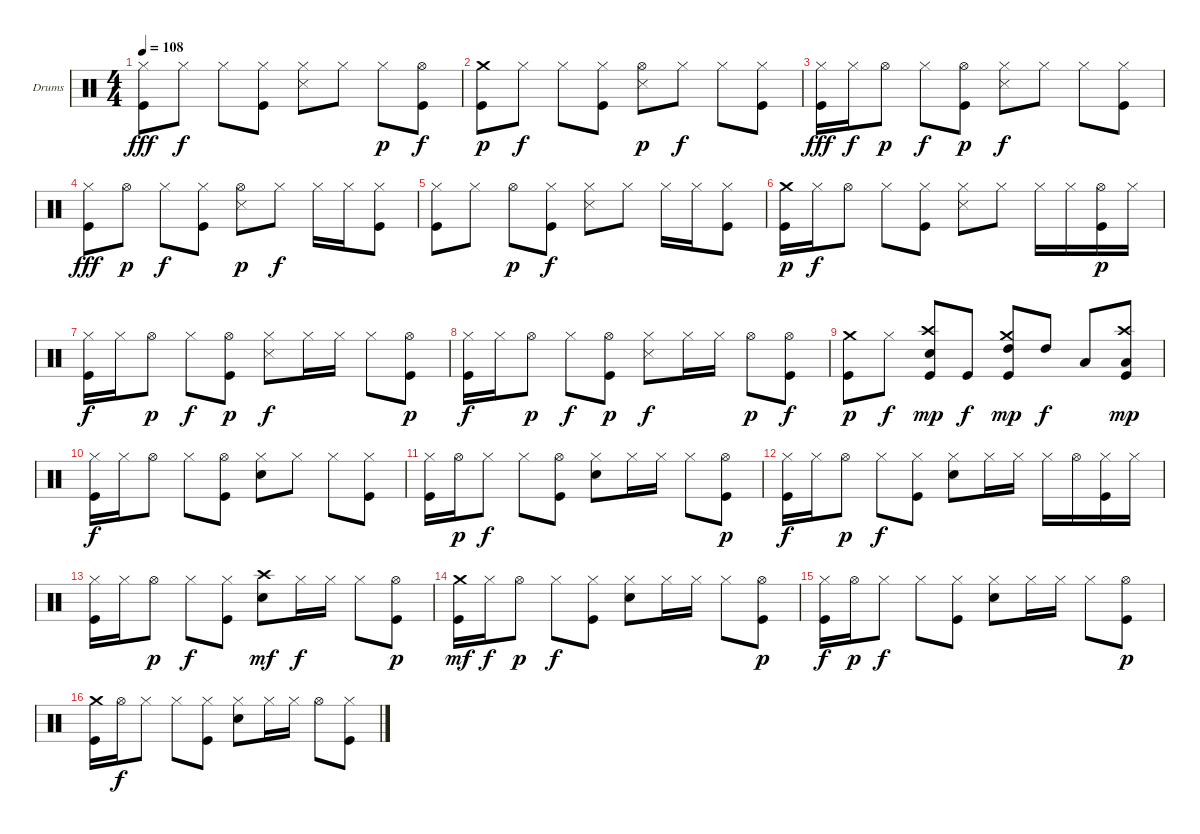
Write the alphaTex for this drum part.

\bracketExtendMode groupsimilarinstruments
\firstSystemTrackNameOrientation horizontal
\otherSystemsTrackNameOrientation horizontal
\track ("Drumkit" "Drums") {instrument percussion}
\staff {score}
\articulation defaults
\ts (4 4)
\tempo 108
\clef neutral
\ks c
("Hi-Hat (closed)" "Kick (hit)").8{dy fff} "Hi-Hat (closed)".8{dy f} "Hi-Hat (closed)".8 ("Hi-Hat (closed)" "Kick (hit)").8 ("Hi-Hat (closed)" "Snare (side stick) 3").8 "Hi-Hat (closed)".8 "Hi-Hat (closed)".8{dy p} ("Hi-Hat (open)" "Kick (hit)").8{dy f} |
("Crash medium (hit)" "Kick (hit)").8{dy p} "Hi-Hat (closed)".8{dy f} "Hi-Hat (closed)".8 ("Hi-Hat (closed)" "Kick (hit)").8 ("Hi-Hat (open)" "Snare (side stick) 3").8{dy p} "Hi-Hat (closed)".8{dy f} "Hi-Hat (closed)".8 ("Hi-Hat (closed)" "Kick (hit)").8 |
("Hi-Hat (closed)" "Kick (hit)").16{dy fff} "Hi-Hat (closed)".16{dy f} "Hi-Hat (open)".8{dy p} "Hi-Hat (closed)".8{dy f} ("Hi-Hat (open)" "Kick (hit)").8{dy p} ("Hi-Hat (closed)" "Snare (side stick) 3").8{dy f} "Hi-Hat (closed)".8 "Hi-Hat (closed)".8 ("Hi-Hat (closed)" "Kick (hit)").8 |
("Hi-Hat (closed)" "Kick (hit)").8{dy fff} "Hi-Hat (open)".8{dy p} "Hi-Hat (closed)".8{dy f} ("Hi-Hat (closed)" "Kick (hit)").8 ("Hi-Hat (open)" "Snare (side stick) 3").8{dy p} "Hi-Hat (closed)".8{dy f} "Hi-Hat (closed)".16 "Hi-Hat (closed)".16 ("Hi-Hat (closed)" "Kick (hit)").8 |
("Hi-Hat (closed)" "Kick (hit)").8 "Hi-Hat (closed)".8 "Hi-Hat (open)".8{dy p} ("Hi-Hat (closed)" "Kick (hit)").8{dy f} ("Hi-Hat (closed)" "Snare (side stick) 3").8 "Hi-Hat (closed)".8 "Hi-Hat (closed)".16 "Hi-Hat (closed)".16 ("Hi-Hat (closed)" "Kick (hit)").8 |
("Crash medium (hit)" "Kick (hit)").16{dy p} "Hi-Hat (closed)".16{dy f} "Hi-Hat (open)".8 "Hi-Hat (closed)".8 ("Hi-Hat (closed)" "Kick (hit)").8 ("Hi-Hat (closed)" "Snare (side stick) 3").8 "Hi-Hat (closed)".8 "Hi-Hat (closed)".16 "Hi-Hat (closed)".16 ("Hi-Hat (open)" "Kick (hit)").16{dy p} "Hi-Hat (closed)".16 |
("Hi-Hat (closed)" "Kick (hit)").16{dy f} "Hi-Hat (closed)".16 "Hi-Hat (open)".8{dy p} "Hi-Hat (closed)".8{dy f} ("Hi-Hat (open)" "Kick (hit)").8{dy p} ("Hi-Hat (closed)" "Snare (side stick) 3").8{dy f} "Hi-Hat (closed)".16 "Hi-Hat (closed)".16 "Hi-Hat (closed)".8 ("Hi-Hat (open)" "Kick (hit)").8{dy p} |
("Hi-Hat (closed)" "Kick (hit)").16{dy f} "Hi-Hat (closed)".16 "Hi-Hat (open)".8{dy p} "Hi-Hat (closed)".8{dy f} ("Hi-Hat (open)" "Kick (hit)").8{dy p} ("Hi-Hat (closed)" "Snare (side stick) 3").8{dy f} "Hi-Hat (closed)".16 "Hi-Hat (closed)".16 "Hi-Hat (open)".8{dy p} ("Hi-Hat (open)" "Kick (hit)").8{dy f} |
("Crash medium (hit)" "Kick (hit)").8{dy p} "Hi-Hat (closed)".8{dy f} ("Crash high (hit)" "Snare (hit) 2" "Kick (hit)").8{dy mp} "Kick (hit)".8{dy f} ("Crash medium (hit)" "High Tom (hit)" "Kick (hit)").8{dy mp} "High Tom (hit)".8{dy f} "Low Tom (hit)".8 ("Crash high (hit)" "Low Tom (hit)" "Kick (hit)").8{dy mp} |
("Hi-Hat (closed)" "Kick (hit)").16{dy f} "Hi-Hat (closed)".16 "Hi-Hat (open)".8 "Hi-Hat (closed)".8 ("Hi-Hat (open)" "Kick (hit)").8 ("Hi-Hat (closed)" "Snare (hit) 2").8 "Hi-Hat (closed)".8 "Hi-Hat (closed)".8 ("Hi-Hat (closed)" "Kick (hit)").8 |
("Hi-Hat (closed)" "Kick (hit)").16 "Hi-Hat (open)".16{dy p} "Hi-Hat (closed)".8{dy f} "Hi-Hat (closed)".8 ("Hi-Hat (open)" "Kick (hit)").8 ("Hi-Hat (closed)" "Snare (hit) 2").8 "Hi-Hat (closed)".16 "Hi-Hat (closed)".16 "Hi-Hat (closed)".8 ("Hi-Hat (open)" "Kick (hit)").8{dy p} |
("Hi-Hat (closed)" "Kick (hit)").16{dy f} "Hi-Hat (closed)".16 "Hi-Hat (open)".8{dy p} "Hi-Hat (closed)".8{dy f} ("Hi-Hat (closed)" "Kick (hit)").8 ("Hi-Hat (closed)" "Snare (hit) 2").8 "Hi-Hat (closed)".16 "Hi-Hat (closed)".16 "Hi-Hat (closed)".16 "Hi-Hat (open)".16 ("Hi-Hat (closed)" "Kick (hit)").16 "Hi-Hat (closed)".16 |
("Hi-Hat (closed)" "Kick (hit)").16 "Hi-Hat (closed)".16 "Hi-Hat (open)".8{dy p} "Hi-Hat (closed)".8{dy f} ("Hi-Hat (closed)" "Kick (hit)").8 ("Crash high (hit)" "Snare (hit) 2").8{dy mf} "Hi-Hat (closed)".16{dy f} "Hi-Hat (closed)".16 "Hi-Hat (closed)".8 ("Hi-Hat (open)" "Kick (hit)").8{dy p} |
("Crash medium (hit)" "Kick (hit)").16{dy mf} "Hi-Hat (closed)".16{dy f} "Hi-Hat (open)".8{dy p} "Hi-Hat (closed)".8{dy f} ("Hi-Hat (closed)" "Kick (hit)").8 ("Hi-Hat (closed)" "Snare (hit) 2").8 "Hi-Hat (closed)".16 "Hi-Hat (closed)".16 "Hi-Hat (closed)".8 ("Hi-Hat (open)" "Kick (hit)").8{dy p} |
("Hi-Hat (closed)" "Kick (hit)").16{dy f} "Hi-Hat (open)".16{dy p} "Hi-Hat (closed)".8{dy f} "Hi-Hat (closed)".8 ("Hi-Hat (closed)" "Kick (hit)").8 ("Hi-Hat (closed)" "Snare (hit) 2").8 "Hi-Hat (closed)".16 "Hi-Hat (closed)".16 "Hi-Hat (closed)".8 ("Hi-Hat (open)" "Kick (hit)").8{dy p} |
("Crash medium (hit)" "Kick (hit)").16 "Hi-Hat (open)".16{dy f} "Hi-Hat (closed)".8 "Hi-Hat (closed)".8 ("Hi-Hat (closed)" "Kick (hit)").8 ("Hi-Hat (closed)" "Snare (hit) 2").8 "Hi-Hat (closed)".16 "Hi-Hat (closed)".16 "Hi-Hat (open)".8 ("Hi-Hat (closed)" "Kick (hit)").8
